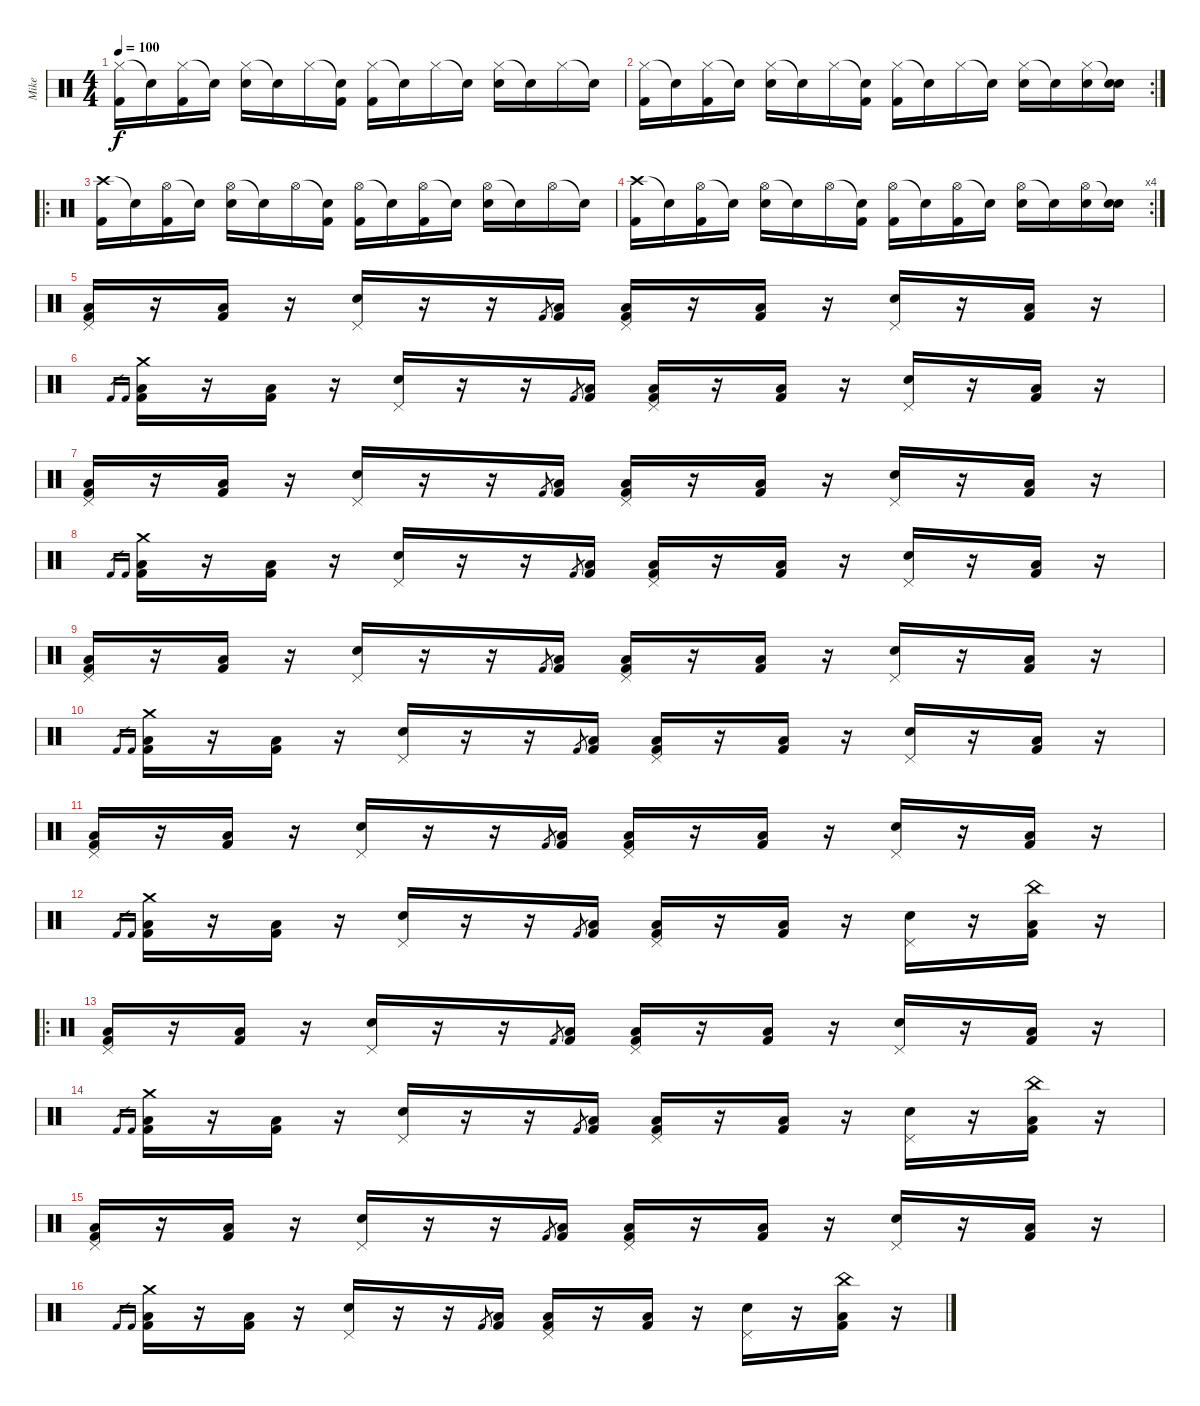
\track ("Mike" "Mike") {instrument percussion}
\staff {score}
\articulation defaults
\ts (4 4)
\tempo 100
\clef neutral
\ks c
("Hi-Hat (closed)" "Kick (hit) 2").16{dy f} "Snare (hit)"{t}.16 ("Hi-Hat (closed)" "Kick (hit) 2").16 "Snare (hit)"{t}.16 ("Hi-Hat (closed)" "Electric Snare (hit)").16 "Snare (hit)"{t}.16 "Hi-Hat (closed)".16 ("Snare (hit)"{t} "Kick (hit) 2").16 ("Hi-Hat (closed)" "Kick (hit) 2").16 "Snare (hit)"{t}.16 "Hi-Hat (closed)".16 "Snare (hit)"{t}.16 ("Hi-Hat (closed)" "Electric Snare (hit)").16 "Snare (hit)"{t}.16 "Hi-Hat (closed)".16 "Snare (hit)"{t}.16 |
\rc 2
("Hi-Hat (closed)" "Kick (hit) 2").16 "Snare (hit)"{t}.16 ("Hi-Hat (closed)" "Kick (hit) 2").16 "Snare (hit)"{t}.16 ("Hi-Hat (closed)" "Electric Snare (hit)").16 "Snare (hit)"{t}.16 "Hi-Hat (closed)".16 ("Snare (hit)"{t} "Kick (hit) 2").16 ("Hi-Hat (closed)" "Kick (hit) 2").16 "Snare (hit)"{t}.16 "Hi-Hat (closed)".16 "Snare (hit)"{t}.16 ("Hi-Hat (closed)" "Electric Snare (hit)").16 "Snare (hit)"{t}.16 ("Hi-Hat (closed)" "Electric Snare (hit)").16 ("Snare (hit)"{t} "Electric Snare (hit)").16 |
\ro
("Crash high (hit)" "Kick (hit) 2").16 "Snare (hit)"{t}.16 ("Hi-Hat (open)" "Kick (hit) 2").16 "Snare (hit)"{t}.16 ("Hi-Hat (open)" "Electric Snare (hit)").16 "Snare (hit)"{t}.16 "Hi-Hat (open)".16 ("Snare (hit)"{t} "Kick (hit) 2").16 ("Hi-Hat (open)" "Kick (hit) 2").16 "Snare (hit)"{t}.16 ("Hi-Hat (open)" "Kick (hit) 2").16 "Snare (hit)"{t}.16 ("Hi-Hat (open)" "Electric Snare (hit)").16 "Snare (hit)"{t}.16 "Hi-Hat (open)".16 "Snare (hit)"{t}.16 |
\rc 4
("Crash high (hit)" "Kick (hit) 2").16 "Snare (hit)"{t}.16 ("Hi-Hat (open)" "Kick (hit) 2").16 "Snare (hit)"{t}.16 ("Hi-Hat (open)" "Electric Snare (hit)").16 "Snare (hit)"{t}.16 "Hi-Hat (open)".16 ("Snare (hit)"{t} "Kick (hit) 2").16 ("Hi-Hat (open)" "Kick (hit) 2").16 "Snare (hit)"{t}.16 ("Hi-Hat (open)" "Kick (hit) 2").16 "Snare (hit)"{t}.16 ("Hi-Hat (open)" "Electric Snare (hit)").16 "Snare (hit)"{t}.16 ("Hi-Hat (open)" "Electric Snare (hit)").16 ("Snare (hit)"{t} "Electric Snare (hit)").16 |
("Pedal Hi-Hat (hit)" "Low Floor Tom (hit)" "Kick (hit) 2").16 r.16 ("Low Floor Tom (hit)" "Kick (hit) 2").16 r.16 ("Pedal Hi-Hat (hit)" "Electric Snare (hit)").16 r.16 r.16 "Kick (hit) 2".8{gr} ("Low Floor Tom (hit)" "Kick (hit) 2").16 ("Pedal Hi-Hat (hit)" "Low Floor Tom (hit)" "Kick (hit) 2").16 r.16 ("Low Floor Tom (hit)" "Kick (hit) 2").16 r.16 ("Pedal Hi-Hat (hit)" "Electric Snare (hit)").16 r.16 ("Low Floor Tom (hit)" "Kick (hit) 2").16 r.16 |
"Kick (hit) 2".16{gr} "Kick (hit) 2".16{gr} ("Crash medium (hit)" "Low Floor Tom (hit)" "Kick (hit) 2").16 r.16 ("Low Floor Tom (hit)" "Kick (hit) 2").16 r.16 ("Pedal Hi-Hat (hit)" "Electric Snare (hit)").16 r.16 r.16 "Kick (hit) 2".8{gr} ("Low Floor Tom (hit)" "Kick (hit) 2").16 ("Pedal Hi-Hat (hit)" "Low Floor Tom (hit)" "Kick (hit) 2").16 r.16 ("Low Floor Tom (hit)" "Kick (hit) 2").16 r.16 ("Pedal Hi-Hat (hit)" "Electric Snare (hit)").16 r.16 ("Low Floor Tom (hit)" "Kick (hit) 2").16 r.16 |
("Pedal Hi-Hat (hit)" "Low Floor Tom (hit)" "Kick (hit) 2").16 r.16 ("Low Floor Tom (hit)" "Kick (hit) 2").16 r.16 ("Pedal Hi-Hat (hit)" "Electric Snare (hit)").16 r.16 r.16 "Kick (hit) 2".8{gr} ("Low Floor Tom (hit)" "Kick (hit) 2").16 ("Pedal Hi-Hat (hit)" "Low Floor Tom (hit)" "Kick (hit) 2").16 r.16 ("Low Floor Tom (hit)" "Kick (hit) 2").16 r.16 ("Pedal Hi-Hat (hit)" "Electric Snare (hit)").16 r.16 ("Low Floor Tom (hit)" "Kick (hit) 2").16 r.16 |
"Kick (hit) 2".16{gr} "Kick (hit) 2".16{gr} ("Crash medium (hit)" "Low Floor Tom (hit)" "Kick (hit) 2").16 r.16 ("Low Floor Tom (hit)" "Kick (hit) 2").16 r.16 ("Pedal Hi-Hat (hit)" "Electric Snare (hit)").16 r.16 r.16 "Kick (hit) 2".8{gr} ("Low Floor Tom (hit)" "Kick (hit) 2").16 ("Pedal Hi-Hat (hit)" "Low Floor Tom (hit)" "Kick (hit) 2").16 r.16 ("Low Floor Tom (hit)" "Kick (hit) 2").16 r.16 ("Pedal Hi-Hat (hit)" "Electric Snare (hit)").16 r.16 ("Low Floor Tom (hit)" "Kick (hit) 2").16 r.16 |
("Pedal Hi-Hat (hit)" "Low Floor Tom (hit)" "Kick (hit) 2").16 r.16 ("Low Floor Tom (hit)" "Kick (hit) 2").16 r.16 ("Pedal Hi-Hat (hit)" "Electric Snare (hit)").16 r.16 r.16 "Kick (hit) 2".8{gr} ("Low Floor Tom (hit)" "Kick (hit) 2").16 ("Pedal Hi-Hat (hit)" "Low Floor Tom (hit)" "Kick (hit) 2").16 r.16 ("Low Floor Tom (hit)" "Kick (hit) 2").16 r.16 ("Pedal Hi-Hat (hit)" "Electric Snare (hit)").16 r.16 ("Low Floor Tom (hit)" "Kick (hit) 2").16 r.16 |
"Kick (hit) 2".16{gr} "Kick (hit) 2".16{gr} ("Crash medium (hit)" "Low Floor Tom (hit)" "Kick (hit) 2").16 r.16 ("Low Floor Tom (hit)" "Kick (hit) 2").16 r.16 ("Pedal Hi-Hat (hit)" "Electric Snare (hit)").16 r.16 r.16 "Kick (hit) 2".8{gr} ("Low Floor Tom (hit)" "Kick (hit) 2").16 ("Pedal Hi-Hat (hit)" "Low Floor Tom (hit)" "Kick (hit) 2").16 r.16 ("Low Floor Tom (hit)" "Kick (hit) 2").16 r.16 ("Pedal Hi-Hat (hit)" "Electric Snare (hit)").16 r.16 ("Low Floor Tom (hit)" "Kick (hit) 2").16 r.16 |
("Pedal Hi-Hat (hit)" "Low Floor Tom (hit)" "Kick (hit) 2").16 r.16 ("Low Floor Tom (hit)" "Kick (hit) 2").16 r.16 ("Pedal Hi-Hat (hit)" "Electric Snare (hit)").16 r.16 r.16 "Kick (hit) 2".8{gr} ("Low Floor Tom (hit)" "Kick (hit) 2").16 ("Pedal Hi-Hat (hit)" "Low Floor Tom (hit)" "Kick (hit) 2").16 r.16 ("Low Floor Tom (hit)" "Kick (hit) 2").16 r.16 ("Pedal Hi-Hat (hit)" "Electric Snare (hit)").16 r.16 ("Low Floor Tom (hit)" "Kick (hit) 2").16 r.16 |
"Kick (hit) 2".16{gr} "Kick (hit) 2".16{gr} ("Crash medium (hit)" "Low Floor Tom (hit)" "Kick (hit) 2").16 r.16 ("Low Floor Tom (hit)" "Kick (hit) 2").16 r.16 ("Pedal Hi-Hat (hit)" "Electric Snare (hit)").16 r.16 r.16 "Kick (hit) 2".8{gr} ("Low Floor Tom (hit)" "Kick (hit) 2").16 ("Pedal Hi-Hat (hit)" "Low Floor Tom (hit)" "Kick (hit) 2").16 r.16 ("Low Floor Tom (hit)" "Kick (hit) 2").16 r.16 ("Pedal Hi-Hat (hit)" "Electric Snare (hit)").16 r.16 ("China (hit)" "Low Floor Tom (hit)" "Kick (hit) 2").16 r.16 |
\ro
("Pedal Hi-Hat (hit)" "Low Floor Tom (hit)" "Kick (hit) 2").16 r.16 ("Low Floor Tom (hit)" "Kick (hit) 2").16 r.16 ("Pedal Hi-Hat (hit)" "Electric Snare (hit)").16 r.16 r.16 "Kick (hit) 2".8{gr} ("Low Floor Tom (hit)" "Kick (hit) 2").16 ("Pedal Hi-Hat (hit)" "Low Floor Tom (hit)" "Kick (hit) 2").16 r.16 ("Low Floor Tom (hit)" "Kick (hit) 2").16 r.16 ("Pedal Hi-Hat (hit)" "Electric Snare (hit)").16 r.16 ("Low Floor Tom (hit)" "Kick (hit) 2").16 r.16 |
"Kick (hit) 2".16{gr} "Kick (hit) 2".16{gr} ("Crash medium (hit)" "Low Floor Tom (hit)" "Kick (hit) 2").16 r.16 ("Low Floor Tom (hit)" "Kick (hit) 2").16 r.16 ("Pedal Hi-Hat (hit)" "Electric Snare (hit)").16 r.16 r.16 "Kick (hit) 2".8{gr} ("Low Floor Tom (hit)" "Kick (hit) 2").16 ("Pedal Hi-Hat (hit)" "Low Floor Tom (hit)" "Kick (hit) 2").16 r.16 ("Low Floor Tom (hit)" "Kick (hit) 2").16 r.16 ("Pedal Hi-Hat (hit)" "Electric Snare (hit)").16 r.16 ("China (hit)" "Low Floor Tom (hit)" "Kick (hit) 2").16 r.16 |
("Pedal Hi-Hat (hit)" "Low Floor Tom (hit)" "Kick (hit) 2").16 r.16 ("Low Floor Tom (hit)" "Kick (hit) 2").16 r.16 ("Pedal Hi-Hat (hit)" "Electric Snare (hit)").16 r.16 r.16 "Kick (hit) 2".8{gr} ("Low Floor Tom (hit)" "Kick (hit) 2").16 ("Pedal Hi-Hat (hit)" "Low Floor Tom (hit)" "Kick (hit) 2").16 r.16 ("Low Floor Tom (hit)" "Kick (hit) 2").16 r.16 ("Pedal Hi-Hat (hit)" "Electric Snare (hit)").16 r.16 ("Low Floor Tom (hit)" "Kick (hit) 2").16 r.16 |
"Kick (hit) 2".16{gr} "Kick (hit) 2".16{gr} ("Crash medium (hit)" "Low Floor Tom (hit)" "Kick (hit) 2").16 r.16 ("Low Floor Tom (hit)" "Kick (hit) 2").16 r.16 ("Pedal Hi-Hat (hit)" "Electric Snare (hit)").16 r.16 r.16 "Kick (hit) 2".8{gr} ("Low Floor Tom (hit)" "Kick (hit) 2").16 ("Pedal Hi-Hat (hit)" "Low Floor Tom (hit)" "Kick (hit) 2").16 r.16 ("Low Floor Tom (hit)" "Kick (hit) 2").16 r.16 ("Pedal Hi-Hat (hit)" "Electric Snare (hit)").16 r.16 ("China (hit)" "Low Floor Tom (hit)" "Kick (hit) 2").16 r.16
